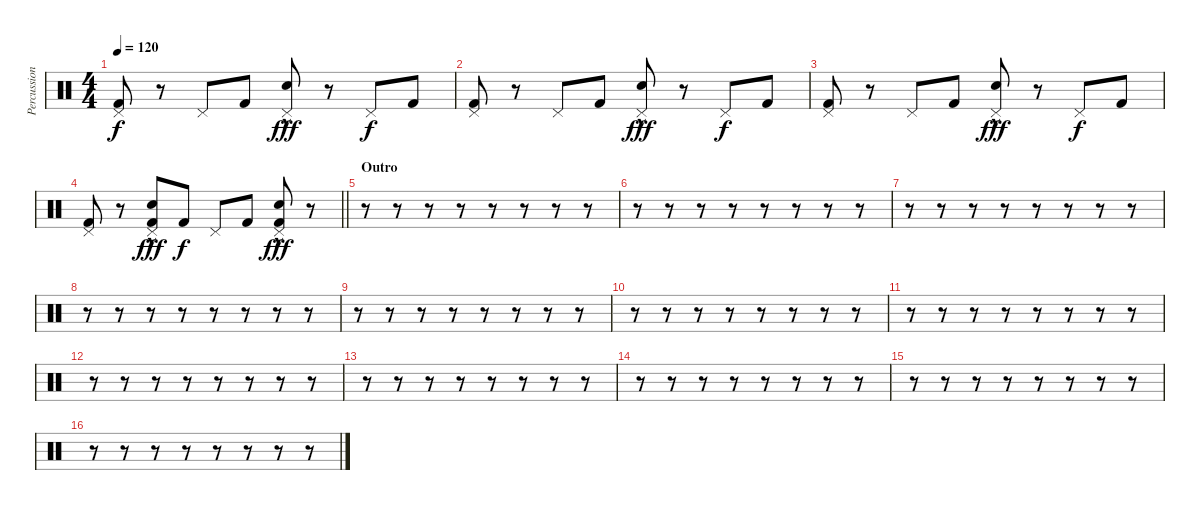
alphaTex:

\track ("Percussion" "Percussion") {instrument percussion}
\staff {score}
\articulation defaults
\ts (4 4)
\tempo 120
\clef neutral
\ks c
("Kick (hit) 2" "Pedal Hi-Hat (hit)").8{dy f} r.8 "Pedal Hi-Hat (hit)".8 "Kick (hit) 2".8 ("Snare (hit) 2"{hac} "Pedal Hi-Hat (hit)").8{dy fff} r.8 "Pedal Hi-Hat (hit)".8{dy f} "Kick (hit) 2".8 |
("Kick (hit) 2" "Pedal Hi-Hat (hit)").8 r.8 "Pedal Hi-Hat (hit)".8 "Kick (hit) 2".8 ("Snare (hit) 2"{hac} "Pedal Hi-Hat (hit)").8{dy fff} r.8 "Pedal Hi-Hat (hit)".8{dy f} "Kick (hit) 2".8 |
("Kick (hit) 2" "Pedal Hi-Hat (hit)").8 r.8 "Pedal Hi-Hat (hit)".8 "Kick (hit) 2".8 ("Snare (hit) 2"{hac} "Pedal Hi-Hat (hit)").8{dy fff} r.8 "Pedal Hi-Hat (hit)".8{dy f} "Kick (hit) 2".8 |
\barLineRight lightlight
("Kick (hit) 2" "Pedal Hi-Hat (hit)").8 r.8 ("Kick (hit) 2" "Snare (hit) 2"{hac} "Pedal Hi-Hat (hit)").8{dy fff} "Kick (hit) 2".8{dy f} "Pedal Hi-Hat (hit)".8 "Kick (hit) 2".8 ("Kick (hit) 2" "Snare (hit) 2"{hac} "Pedal Hi-Hat (hit)").8{dy fff} r.8 |
\section ("" "Outro")
r.8 r.8 r.8 r.8 r.8 r.8 r.8 r.8 |
r.8 r.8 r.8 r.8 r.8 r.8 r.8 r.8 |
r.8 r.8 r.8 r.8 r.8 r.8 r.8 r.8 |
r.8 r.8 r.8 r.8 r.8 r.8 r.8 r.8 |
r.8 r.8 r.8 r.8 r.8 r.8 r.8 r.8 |
r.8 r.8 r.8 r.8 r.8 r.8 r.8 r.8 |
r.8 r.8 r.8 r.8 r.8 r.8 r.8 r.8 |
r.8 r.8 r.8 r.8 r.8 r.8 r.8 r.8 |
r.8 r.8 r.8 r.8 r.8 r.8 r.8 r.8 |
r.8 r.8 r.8 r.8 r.8 r.8 r.8 r.8 |
r.8 r.8 r.8 r.8 r.8 r.8 r.8 r.8 |
r.8 r.8 r.8 r.8 r.8 r.8 r.8 r.8
